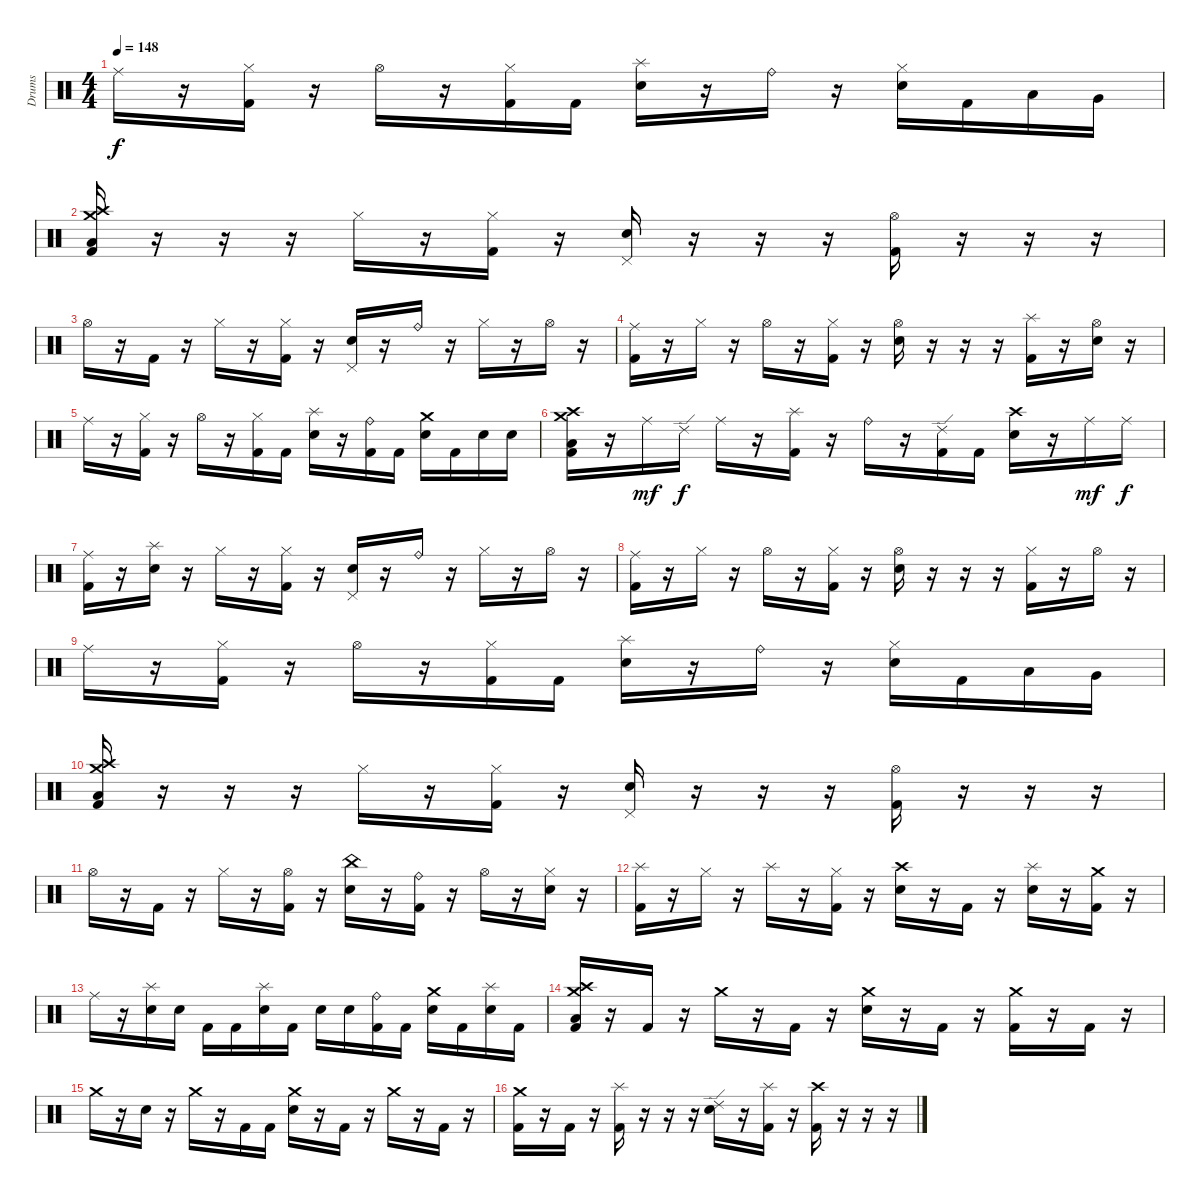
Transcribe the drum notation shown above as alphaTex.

\track ("Drums" "Drums") {instrument percussion}
\staff {score}
\articulation defaults
\ts (4 4)
\tempo 148
\clef neutral
\ks c "Ride (middle)".16{dy f}
r.16 ("Hi-Hat (closed)" "Kick (hit) 2").16 r.16 "Hi-Hat (open)".16 r.16 ("Hi-Hat (closed)" "Kick (hit) 2").16 "Kick (hit) 2".16 ("Splash (hit)" "Electric Snare (hit)").16 r.16 "Ride (bell)".16 r.16 ("Hi-Hat (closed)" "Electric Snare (hit)").16 "Kick (hit) 2".16 "Low Tom (hit)".16 "Very Low Tom (hit)".16 |
("Crash high (hit)" "Crash medium (hit)" "Low Floor Tom (hit)" "Kick (hit) 2").16 r.16 r.16 r.16 "Hi-Hat (closed)".16 r.16 ("Hi-Hat (closed)" "Kick (hit) 2").16 r.16 ("Pedal Hi-Hat (hit)" "Electric Snare (hit)").16 r.16 r.16 r.16 ("Hi-Hat (open)" "Kick (hit) 2").16 r.16 r.16 r.16 |
"Hi-Hat (open)".16 r.16 "Kick (hit) 2".16 r.16 "Hi-Hat (closed)".16 r.16 ("Hi-Hat (closed)" "Kick (hit) 2").16 r.16 ("Pedal Hi-Hat (hit)" "Electric Snare (hit)").16 r.16 "Ride (bell)".16 r.16 "Hi-Hat (closed)".16 r.16 "Hi-Hat (open)".16 r.16 |
("Ride (middle)" "Kick (hit) 2").16 r.16 "Hi-Hat (closed)".16 r.16 "Hi-Hat (open)".16 r.16 ("Hi-Hat (closed)" "Kick (hit) 2").16 r.16 ("Hi-Hat (open)" "Electric Snare (hit)").16 r.16 r.16 r.16 ("Splash (hit)" "Kick (hit) 2").16 r.16 ("Hi-Hat (open)" "Electric Snare (hit)").16 r.16 |
"Ride (middle)".16 r.16 ("Hi-Hat (closed)" "Kick (hit) 2").16 r.16 "Hi-Hat (open)".16 r.16 ("Hi-Hat (closed)" "Kick (hit) 2").16 "Kick (hit) 2".16 ("Splash (hit)" "Electric Snare (hit)").16 r.16 ("Ride (bell)" "Kick (hit) 2").16 "Kick (hit) 2".16 ("Crash medium (hit)" "Electric Snare (hit)").16 "Kick (hit) 2".16 "Electric Snare (hit)".16 "Electric Snare (hit)".16 |
("Crash high (hit)" "Crash medium (hit)" "Low Floor Tom (hit)" "Kick (hit) 2").16 r.16 "Ride (middle)".16{dy mf} "Ride (edge) 2".16{dy f} "Ride (middle)".16 r.16 ("Splash (hit)" "Kick (hit) 2").16 r.16 "Ride (bell)".16 r.16 ("Ride (edge) 2" "Kick (hit) 2").16 "Kick (hit) 2".16 ("Crash high (hit)" "Electric Snare (hit)").16 r.16 "Ride (middle)".16{dy mf} "Ride (middle)".16{dy f} |
("Ride (middle)" "Kick (hit) 2").16 r.16 ("Splash (hit)" "Electric Snare (hit)").16 r.16 "Hi-Hat (closed)".16 r.16 ("Hi-Hat (closed)" "Kick (hit) 2").16 r.16 ("Pedal Hi-Hat (hit)" "Electric Snare (hit)").16 r.16 "Ride (bell)".16 r.16 "Hi-Hat (closed)".16 r.16 "Hi-Hat (open)".16 r.16 |
("Ride (middle)" "Kick (hit) 2").16 r.16 "Hi-Hat (closed)".16 r.16 "Hi-Hat (open)".16 r.16 ("Hi-Hat (closed)" "Kick (hit) 2").16 r.16 ("Hi-Hat (open)" "Electric Snare (hit)").16 r.16 r.16 r.16 ("Hi-Hat (closed)" "Kick (hit) 2").16 r.16 "Hi-Hat (open)".16 r.16 |
"Ride (middle)".16 r.16 ("Hi-Hat (closed)" "Kick (hit) 2").16 r.16 "Hi-Hat (open)".16 r.16 ("Hi-Hat (closed)" "Kick (hit) 2").16 "Kick (hit) 2".16 ("Splash (hit)" "Electric Snare (hit)").16 r.16 "Ride (bell)".16 r.16 ("Hi-Hat (closed)" "Electric Snare (hit)").16 "Kick (hit) 2".16 "Low Tom (hit)".16 "Very Low Tom (hit)".16 |
("Crash high (hit)" "Crash medium (hit)" "Low Floor Tom (hit)" "Kick (hit) 2").16 r.16 r.16 r.16 "Hi-Hat (closed)".16 r.16 ("Hi-Hat (closed)" "Kick (hit) 2").16 r.16 ("Pedal Hi-Hat (hit)" "Electric Snare (hit)").16 r.16 r.16 r.16 ("Hi-Hat (open)" "Kick (hit) 2").16 r.16 r.16 r.16 |
"Hi-Hat (open)".16 r.16 "Kick (hit) 2".16 r.16 "Hi-Hat (closed)".16 r.16 ("Hi-Hat (open)" "Kick (hit) 2").16 r.16 ("China (hit)" "Electric Snare (hit)").16 r.16 ("Ride (bell)" "Kick (hit) 2").16 r.16 "Hi-Hat (open)".16 r.16 ("Hi-Hat (closed)" "Electric Snare (hit)").16 r.16 |
("Splash (hit)" "Kick (hit) 2").16 r.16 "Hi-Hat (closed)".16 r.16 "Splash (hit)".16 r.16 ("Hi-Hat (closed)" "Kick (hit) 2").16 r.16 ("Crash high (hit)" "Electric Snare (hit)").16 r.16 "Kick (hit) 2".16 r.16 ("Splash (hit)" "Electric Snare (hit)").16 r.16 ("Crash medium (hit)" "Kick (hit) 2").16 r.16 |
"Ride (middle)".16 r.16 ("Splash (hit)" "Electric Snare (hit)").16 "Electric Snare (hit)".16 "Kick (hit) 2".16 "Kick (hit) 2".16 ("Splash (hit)" "Electric Snare (hit)").16 "Kick (hit) 2".16 "Electric Snare (hit)".16 "Electric Snare (hit)".16 ("Ride (bell)" "Kick (hit) 2").16 "Kick (hit) 2".16 ("Crash medium (hit)" "Electric Snare (hit)").16 "Kick (hit) 2".16 ("Splash (hit)" "Electric Snare (hit)").16 "Kick (hit) 2".16 |
("Crash high (hit)" "Crash medium (hit)" "Low Floor Tom (hit)" "Kick (hit) 2").16 r.16 "Kick (hit) 2".16 r.16 "Crash medium (hit)".16 r.16 "Kick (hit) 2".16 r.16 ("Crash medium (hit)" "Electric Snare (hit)").16 r.16 "Kick (hit) 2".16 r.16 ("Crash medium (hit)" "Kick (hit) 2").16 r.16 "Kick (hit) 2".16 r.16 |
"Crash medium (hit)".16 r.16 "Electric Snare (hit)".16 r.16 "Crash medium (hit)".16 r.16 "Kick (hit) 2".16 "Kick (hit) 2".16 ("Crash medium (hit)" "Electric Snare (hit)").16 r.16 "Kick (hit) 2".16 r.16 "Crash medium (hit)".16 r.16 "Kick (hit) 2".16 r.16 |
("Crash medium (hit)" "Kick (hit) 2").16 r.16 "Kick (hit) 2".16 r.16 ("Splash (hit)" "Kick (hit) 2").16 r.16 r.16 r.16 ("Ride (edge) 2" "Electric Snare (hit)").16 r.16 ("Splash (hit)" "Kick (hit) 2").16 r.16 ("Crash high (hit)" "Kick (hit) 2").16 r.16 r.16 r.16
